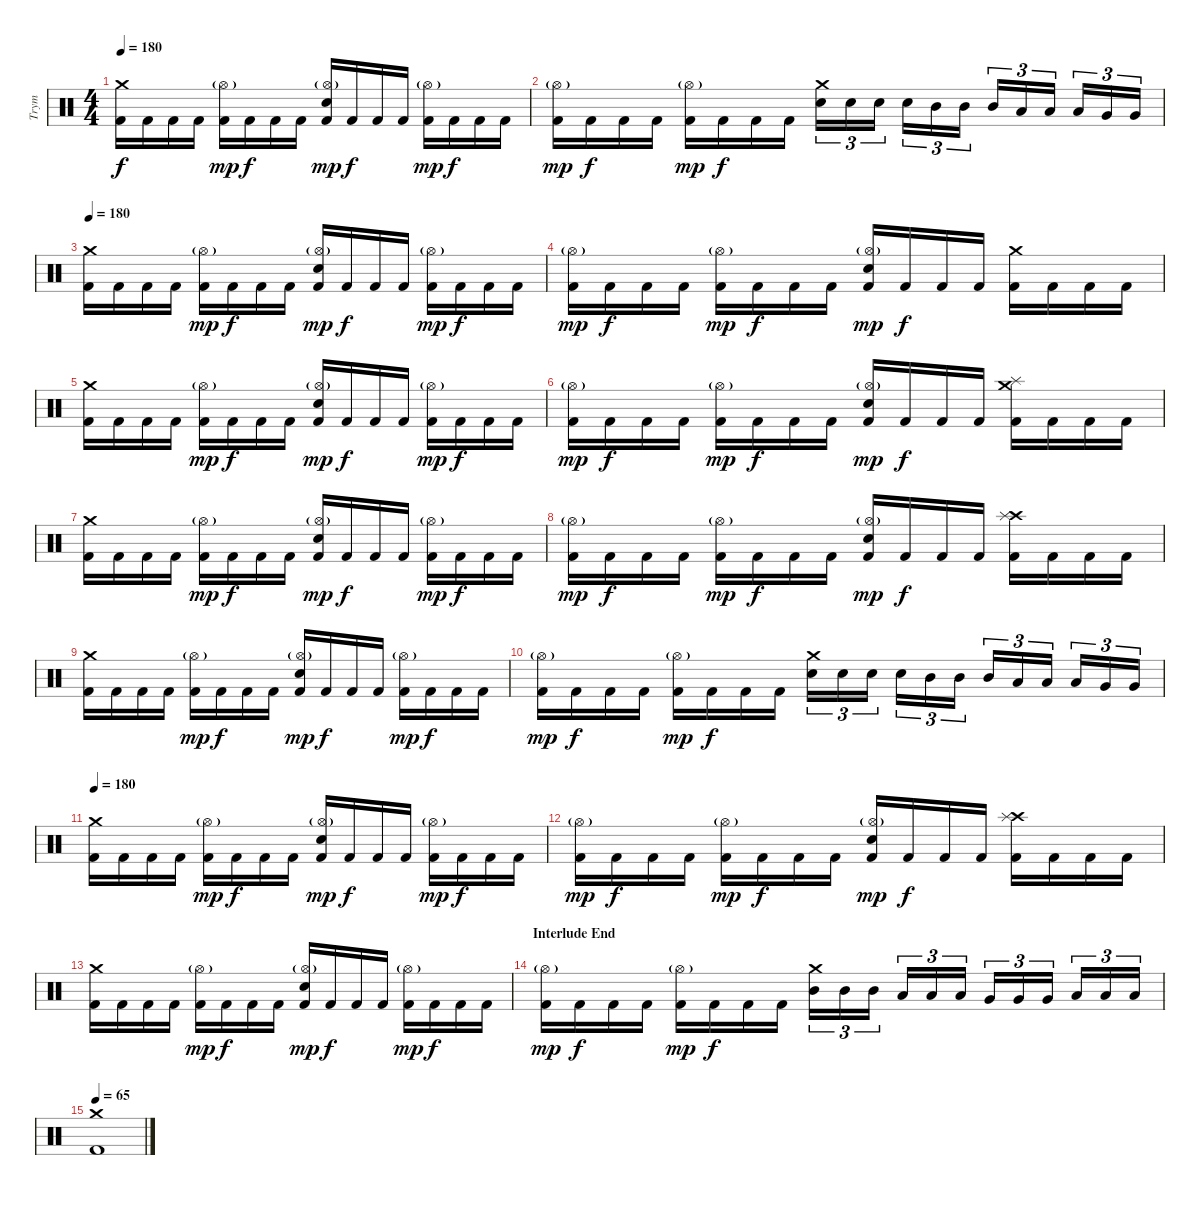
\track ("Trym" "Trym") {instrument percussion}
\staff {score}
\articulation defaults
\ts (4 4)
\tempo 180
\clef neutral
\ks c
("Crash medium (hit)" "Kick (hit) 2").16{dy f} "Kick (hit) 2".16 "Kick (hit) 2".16 "Kick (hit) 2".16 ("Hi-Hat (open)"{g} "Kick (hit) 2").16{dy mp} "Kick (hit) 2".16{dy f} "Kick (hit) 2".16 "Kick (hit) 2".16 ("Hi-Hat (open)"{g} "Electric Snare (hit)" "Kick (hit) 2").16{dy mp} "Kick (hit) 2".16{dy f} "Kick (hit) 2".16 "Kick (hit) 2".16 ("Hi-Hat (open)"{g} "Kick (hit) 2").16{dy mp} "Kick (hit) 2".16{dy f} "Kick (hit) 2".16 "Kick (hit) 2".16 |
("Hi-Hat (open)"{g} "Kick (hit) 2").16{dy mp} "Kick (hit) 2".16{dy f} "Kick (hit) 2".16 "Kick (hit) 2".16 ("Hi-Hat (open)"{g} "Kick (hit) 2").16{dy mp} "Kick (hit) 2".16{dy f} "Kick (hit) 2".16 "Kick (hit) 2".16 ("Crash medium (hit)" "Electric Snare (hit)").16{tu (3 2)} "Electric Snare (hit)".16{tu (3 2)} "Electric Snare (hit)".16{tu (3 2)} "Electric Snare (hit)".16{tu (3 2)} "Mid Tom (hit)".16{tu (3 2)} "Mid Tom (hit)".16{tu (3 2)} "Mid Tom (hit)".16{tu (3 2)} "Low Tom (hit)".16{tu (3 2)} "Low Tom (hit)".16{tu (3 2)} "Low Tom (hit)".16{tu (3 2)} "Very Low Tom (hit)".16{tu (3 2)} "Very Low Tom (hit)".16{tu (3 2)} |
\tempo 180
("Crash medium (hit)" "Kick (hit) 2").16 "Kick (hit) 2".16 "Kick (hit) 2".16 "Kick (hit) 2".16 ("Hi-Hat (open)"{g} "Kick (hit) 2").16{dy mp} "Kick (hit) 2".16{dy f} "Kick (hit) 2".16 "Kick (hit) 2".16 ("Hi-Hat (open)"{g} "Electric Snare (hit)" "Kick (hit) 2").16{dy mp} "Kick (hit) 2".16{dy f} "Kick (hit) 2".16 "Kick (hit) 2".16 ("Hi-Hat (open)"{g} "Kick (hit) 2").16{dy mp} "Kick (hit) 2".16{dy f} "Kick (hit) 2".16 "Kick (hit) 2".16 |
("Hi-Hat (open)"{g} "Kick (hit) 2").16{dy mp} "Kick (hit) 2".16{dy f} "Kick (hit) 2".16 "Kick (hit) 2".16 ("Hi-Hat (open)"{g} "Kick (hit) 2").16{dy mp} "Kick (hit) 2".16{dy f} "Kick (hit) 2".16 "Kick (hit) 2".16 ("Hi-Hat (open)"{g} "Electric Snare (hit)" "Kick (hit) 2").16{dy mp} "Kick (hit) 2".16{dy f} "Kick (hit) 2".16 "Kick (hit) 2".16 ("Crash medium (hit)" "Kick (hit) 2").16 "Kick (hit) 2".16 "Kick (hit) 2".16 "Kick (hit) 2".16 |
("Crash medium (hit)" "Kick (hit) 2").16 "Kick (hit) 2".16 "Kick (hit) 2".16 "Kick (hit) 2".16 ("Hi-Hat (open)"{g} "Kick (hit) 2").16{dy mp} "Kick (hit) 2".16{dy f} "Kick (hit) 2".16 "Kick (hit) 2".16 ("Hi-Hat (open)"{g} "Electric Snare (hit)" "Kick (hit) 2").16{dy mp} "Kick (hit) 2".16{dy f} "Kick (hit) 2".16 "Kick (hit) 2".16 ("Hi-Hat (open)"{g} "Kick (hit) 2").16{dy mp} "Kick (hit) 2".16{dy f} "Kick (hit) 2".16 "Kick (hit) 2".16 |
("Hi-Hat (open)"{g} "Kick (hit) 2").16{dy mp} "Kick (hit) 2".16{dy f} "Kick (hit) 2".16 "Kick (hit) 2".16 ("Hi-Hat (open)"{g} "Kick (hit) 2").16{dy mp} "Kick (hit) 2".16{dy f} "Kick (hit) 2".16 "Kick (hit) 2".16 ("Hi-Hat (open)"{g} "Electric Snare (hit)" "Kick (hit) 2").16{dy mp} "Kick (hit) 2".16{dy f} "Kick (hit) 2".16 "Kick (hit) 2".16 ("Crash medium (hit)" "Splash (hit)" "Kick (hit) 2").16 "Kick (hit) 2".16 "Kick (hit) 2".16 "Kick (hit) 2".16 |
("Crash medium (hit)" "Kick (hit) 2").16 "Kick (hit) 2".16 "Kick (hit) 2".16 "Kick (hit) 2".16 ("Hi-Hat (open)"{g} "Kick (hit) 2").16{dy mp} "Kick (hit) 2".16{dy f} "Kick (hit) 2".16 "Kick (hit) 2".16 ("Hi-Hat (open)"{g} "Electric Snare (hit)" "Kick (hit) 2").16{dy mp} "Kick (hit) 2".16{dy f} "Kick (hit) 2".16 "Kick (hit) 2".16 ("Hi-Hat (open)"{g} "Kick (hit) 2").16{dy mp} "Kick (hit) 2".16{dy f} "Kick (hit) 2".16 "Kick (hit) 2".16 |
("Hi-Hat (open)"{g} "Kick (hit) 2").16{dy mp} "Kick (hit) 2".16{dy f} "Kick (hit) 2".16 "Kick (hit) 2".16 ("Hi-Hat (open)"{g} "Kick (hit) 2").16{dy mp} "Kick (hit) 2".16{dy f} "Kick (hit) 2".16 "Kick (hit) 2".16 ("Hi-Hat (open)"{g} "Electric Snare (hit)" "Kick (hit) 2").16{dy mp} "Kick (hit) 2".16{dy f} "Kick (hit) 2".16 "Kick (hit) 2".16 ("Crash high (hit)" "Splash (hit)" "Kick (hit) 2").16 "Kick (hit) 2".16 "Kick (hit) 2".16 "Kick (hit) 2".16 |
("Crash medium (hit)" "Kick (hit) 2").16 "Kick (hit) 2".16 "Kick (hit) 2".16 "Kick (hit) 2".16 ("Hi-Hat (open)"{g} "Kick (hit) 2").16{dy mp} "Kick (hit) 2".16{dy f} "Kick (hit) 2".16 "Kick (hit) 2".16 ("Hi-Hat (open)"{g} "Electric Snare (hit)" "Kick (hit) 2").16{dy mp} "Kick (hit) 2".16{dy f} "Kick (hit) 2".16 "Kick (hit) 2".16 ("Hi-Hat (open)"{g} "Kick (hit) 2").16{dy mp} "Kick (hit) 2".16{dy f} "Kick (hit) 2".16 "Kick (hit) 2".16 |
("Hi-Hat (open)"{g} "Kick (hit) 2").16{dy mp} "Kick (hit) 2".16{dy f} "Kick (hit) 2".16 "Kick (hit) 2".16 ("Hi-Hat (open)"{g} "Kick (hit) 2").16{dy mp} "Kick (hit) 2".16{dy f} "Kick (hit) 2".16 "Kick (hit) 2".16 ("Crash medium (hit)" "Electric Snare (hit)").16{tu (3 2)} "Electric Snare (hit)".16{tu (3 2)} "Electric Snare (hit)".16{tu (3 2)} "Electric Snare (hit)".16{tu (3 2)} "Mid Tom (hit)".16{tu (3 2)} "Mid Tom (hit)".16{tu (3 2)} "Mid Tom (hit)".16{tu (3 2)} "Low Tom (hit)".16{tu (3 2)} "Low Tom (hit)".16{tu (3 2)} "Low Tom (hit)".16{tu (3 2)} "Very Low Tom (hit)".16{tu (3 2)} "Very Low Tom (hit)".16{tu (3 2)} |
\tempo 180
("Crash medium (hit)" "Kick (hit) 2").16 "Kick (hit) 2".16 "Kick (hit) 2".16 "Kick (hit) 2".16 ("Hi-Hat (open)"{g} "Kick (hit) 2").16{dy mp} "Kick (hit) 2".16{dy f} "Kick (hit) 2".16 "Kick (hit) 2".16 ("Hi-Hat (open)"{g} "Electric Snare (hit)" "Kick (hit) 2").16{dy mp} "Kick (hit) 2".16{dy f} "Kick (hit) 2".16 "Kick (hit) 2".16 ("Hi-Hat (open)"{g} "Kick (hit) 2").16{dy mp} "Kick (hit) 2".16{dy f} "Kick (hit) 2".16 "Kick (hit) 2".16 |
("Hi-Hat (open)"{g} "Kick (hit) 2").16{dy mp} "Kick (hit) 2".16{dy f} "Kick (hit) 2".16 "Kick (hit) 2".16 ("Hi-Hat (open)"{g} "Kick (hit) 2").16{dy mp} "Kick (hit) 2".16{dy f} "Kick (hit) 2".16 "Kick (hit) 2".16 ("Hi-Hat (open)"{g} "Electric Snare (hit)" "Kick (hit) 2").16{dy mp} "Kick (hit) 2".16{dy f} "Kick (hit) 2".16 "Kick (hit) 2".16 ("Crash high (hit)" "Splash (hit)" "Kick (hit) 2").16 "Kick (hit) 2".16 "Kick (hit) 2".16 "Kick (hit) 2".16 |
("Crash medium (hit)" "Kick (hit) 2").16 "Kick (hit) 2".16 "Kick (hit) 2".16 "Kick (hit) 2".16 ("Hi-Hat (open)"{g} "Kick (hit) 2").16{dy mp} "Kick (hit) 2".16{dy f} "Kick (hit) 2".16 "Kick (hit) 2".16 ("Hi-Hat (open)"{g} "Electric Snare (hit)" "Kick (hit) 2").16{dy mp} "Kick (hit) 2".16{dy f} "Kick (hit) 2".16 "Kick (hit) 2".16 ("Hi-Hat (open)"{g} "Kick (hit) 2").16{dy mp} "Kick (hit) 2".16{dy f} "Kick (hit) 2".16 "Kick (hit) 2".16 |
\section ("" "Interlude End")
("Hi-Hat (open)"{g} "Kick (hit) 2").16{dy mp} "Kick (hit) 2".16{dy f} "Kick (hit) 2".16 "Kick (hit) 2".16 ("Hi-Hat (open)"{g} "Kick (hit) 2").16{dy mp} "Kick (hit) 2".16{dy f} "Kick (hit) 2".16 "Kick (hit) 2".16 ("Crash medium (hit)" "Mid Tom (hit)").16{tu (3 2)} "Mid Tom (hit)".16{tu (3 2)} "Mid Tom (hit)".16{tu (3 2)} "Low Tom (hit)".16{tu (3 2)} "Low Tom (hit)".16{tu (3 2)} "Low Tom (hit)".16{tu (3 2)} "Very Low Tom (hit)".16{tu (3 2)} "Very Low Tom (hit)".16{tu (3 2)} "Very Low Tom (hit)".16{tu (3 2)} "Low Floor Tom (hit)".16{tu (3 2)} "Low Floor Tom (hit)".16{tu (3 2)} "Low Floor Tom (hit)".16{tu (3 2)} |
\tempo 65
("Crash medium (hit)" "Kick (hit) 2").1
